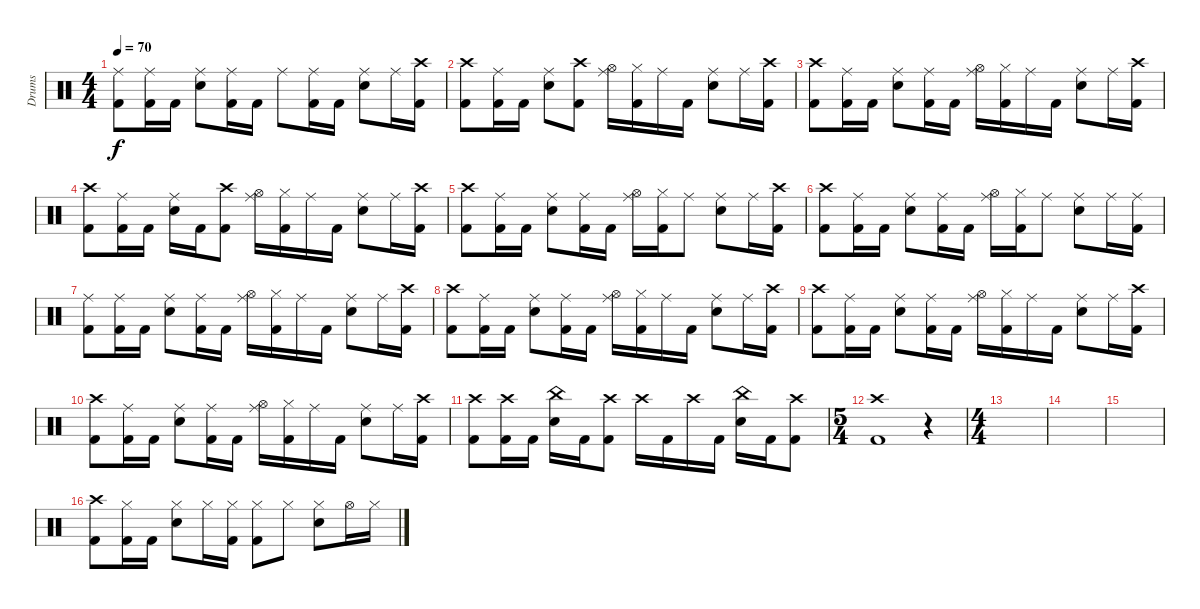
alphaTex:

\track ("Drums" "Drums") {instrument percussion}
\staff {score}
\articulation defaults
\ts (4 4)
\tempo 70
\clef neutral
\ks c
("Ride (middle)" "Kick (hit) 2").8{dy f} ("Ride (middle)" "Kick (hit) 2").16 "Kick (hit) 2".16 ("Ride (middle)" "Electric Snare (hit)").8 ("Ride (middle)" "Kick (hit) 2").16 "Kick (hit) 2".16 "Ride (middle)".8 ("Ride (middle)" "Kick (hit) 2").16 "Kick (hit) 2".16 ("Ride (middle)" "Electric Snare (hit)").8 "Ride (middle)".16 ("Crash high (hit)" "Kick (hit) 2").16 |
("Crash high (hit)" "Kick (hit) 2").8 ("Ride (middle)" "Kick (hit) 2").16 "Kick (hit) 2".16 ("Ride (middle)" "Electric Snare (hit)").8 ("Crash high (hit)" "Kick (hit) 2").8 ("Ride (middle)" "Hi-Hat (open)").16 ("Hi-Hat (closed)" "Kick (hit) 2").16 "Ride (middle)".16 "Kick (hit) 2".16 ("Ride (middle)" "Electric Snare (hit)").8 "Ride (middle)".16 ("Crash high (hit)" "Kick (hit) 2").16 |
("Crash high (hit)" "Kick (hit) 2").8 ("Ride (middle)" "Kick (hit) 2").16 "Kick (hit) 2".16 ("Ride (middle)" "Electric Snare (hit)").8 ("Ride (middle)" "Kick (hit) 2").16 "Kick (hit) 2".16 ("Ride (middle)" "Hi-Hat (open)").16 ("Hi-Hat (closed)" "Kick (hit) 2").16 "Ride (middle)".16 "Kick (hit) 2".16 ("Ride (middle)" "Electric Snare (hit)").8 "Ride (middle)".16 ("Crash high (hit)" "Kick (hit) 2").16 |
("Crash high (hit)" "Kick (hit) 2").8 ("Ride (middle)" "Kick (hit) 2").16 "Kick (hit) 2".16 ("Ride (middle)" "Electric Snare (hit)").16 "Kick (hit) 2".16 ("Crash high (hit)" "Kick (hit) 2").8 ("Ride (middle)" "Hi-Hat (open)").16 ("Hi-Hat (closed)" "Kick (hit) 2").16 "Ride (middle)".16 "Kick (hit) 2".16 ("Ride (middle)" "Electric Snare (hit)").8 "Ride (middle)".16 ("Crash high (hit)" "Kick (hit) 2").16 |
("Crash high (hit)" "Kick (hit) 2").8 ("Ride (middle)" "Kick (hit) 2").16 "Kick (hit) 2".16 ("Ride (middle)" "Electric Snare (hit)").8 ("Ride (middle)" "Kick (hit) 2").16 "Kick (hit) 2".16 ("Ride (middle)" "Hi-Hat (open)").16 ("Hi-Hat (closed)" "Kick (hit) 2").16 "Ride (middle)".8 ("Ride (middle)" "Electric Snare (hit)").8 "Ride (middle)".16 ("Crash high (hit)" "Kick (hit) 2").16 |
("Crash high (hit)" "Kick (hit) 2").8 ("Ride (middle)" "Kick (hit) 2").16 "Kick (hit) 2".16 ("Ride (middle)" "Electric Snare (hit)").8 ("Ride (middle)" "Kick (hit) 2").16 "Kick (hit) 2".16 ("Ride (middle)" "Hi-Hat (open)").16 ("Hi-Hat (closed)" "Kick (hit) 2").16 "Ride (middle)".8 ("Ride (middle)" "Electric Snare (hit)").8 "Ride (middle)".16 ("Ride (middle)" "Kick (hit) 2").16 |
("Ride (middle)" "Kick (hit) 2").8 ("Ride (middle)" "Kick (hit) 2").16 "Kick (hit) 2".16 ("Ride (middle)" "Electric Snare (hit)").8 ("Ride (middle)" "Kick (hit) 2").16 "Kick (hit) 2".16 ("Ride (middle)" "Hi-Hat (open)").16 ("Hi-Hat (closed)" "Kick (hit) 2").16 "Ride (middle)".16 "Kick (hit) 2".16 ("Ride (middle)" "Electric Snare (hit)").8 "Ride (middle)".16 ("Crash high (hit)" "Kick (hit) 2").16 |
("Crash high (hit)" "Kick (hit) 2").8 ("Ride (middle)" "Kick (hit) 2").16 "Kick (hit) 2".16 ("Ride (middle)" "Electric Snare (hit)").8 ("Ride (middle)" "Kick (hit) 2").16 "Kick (hit) 2".16 ("Ride (middle)" "Hi-Hat (open)").16 ("Hi-Hat (closed)" "Kick (hit) 2").16 "Ride (middle)".16 "Kick (hit) 2".16 ("Ride (middle)" "Electric Snare (hit)").8 "Ride (middle)".16 ("Crash high (hit)" "Kick (hit) 2").16 |
("Crash high (hit)" "Kick (hit) 2").8 ("Ride (middle)" "Kick (hit) 2").16 "Kick (hit) 2".16 ("Ride (middle)" "Electric Snare (hit)").8 ("Ride (middle)" "Kick (hit) 2").16 "Kick (hit) 2".16 ("Ride (middle)" "Hi-Hat (open)").16 ("Hi-Hat (closed)" "Kick (hit) 2").16 "Ride (middle)".16 "Kick (hit) 2".16 ("Ride (middle)" "Electric Snare (hit)").8 "Ride (middle)".16 ("Crash high (hit)" "Kick (hit) 2").16 |
("Crash high (hit)" "Kick (hit) 2").8 ("Ride (middle)" "Kick (hit) 2").16 "Kick (hit) 2".16 ("Ride (middle)" "Electric Snare (hit)").8 ("Ride (middle)" "Kick (hit) 2").16 "Kick (hit) 2".16 ("Ride (middle)" "Hi-Hat (open)").16 ("Hi-Hat (closed)" "Kick (hit) 2").16 "Ride (middle)".16 "Kick (hit) 2".16 ("Ride (middle)" "Electric Snare (hit)").8 "Ride (middle)".16 ("Crash high (hit)" "Kick (hit) 2").16 |
("Crash high (hit)" "Kick (hit) 2").8 ("Crash high (hit)" "Kick (hit) 2").16 "Kick (hit) 2".16 ("China (hit)" "Electric Snare (hit)").16 "Kick (hit) 2".16 ("Crash high (hit)" "Kick (hit) 2").8 "Crash high (hit)".16 "Kick (hit) 2".16 "Crash high (hit)".16 "Kick (hit) 2".16 ("China (hit)" "Electric Snare (hit)").16 "Kick (hit) 2".16 ("Crash high (hit)" "Kick (hit) 2").8 |
\ts (5 4)
("Crash high (hit)" "Kick (hit) 2").1 r.4 |
\ts (4 4)
|
|
|
("Crash high (hit)" "Kick (hit) 2").8 ("Hi-Hat (closed)" "Kick (hit) 2").16 "Kick (hit) 2".16 ("Hi-Hat (closed)" "Electric Snare (hit)").8 "Hi-Hat (closed)".16 ("Hi-Hat (closed)" "Kick (hit) 2").16 ("Hi-Hat (closed)" "Kick (hit) 2").8 "Hi-Hat (closed)".8 ("Hi-Hat (closed)" "Electric Snare (hit)").8 "Hi-Hat (open)".16 "Hi-Hat (closed)".16
